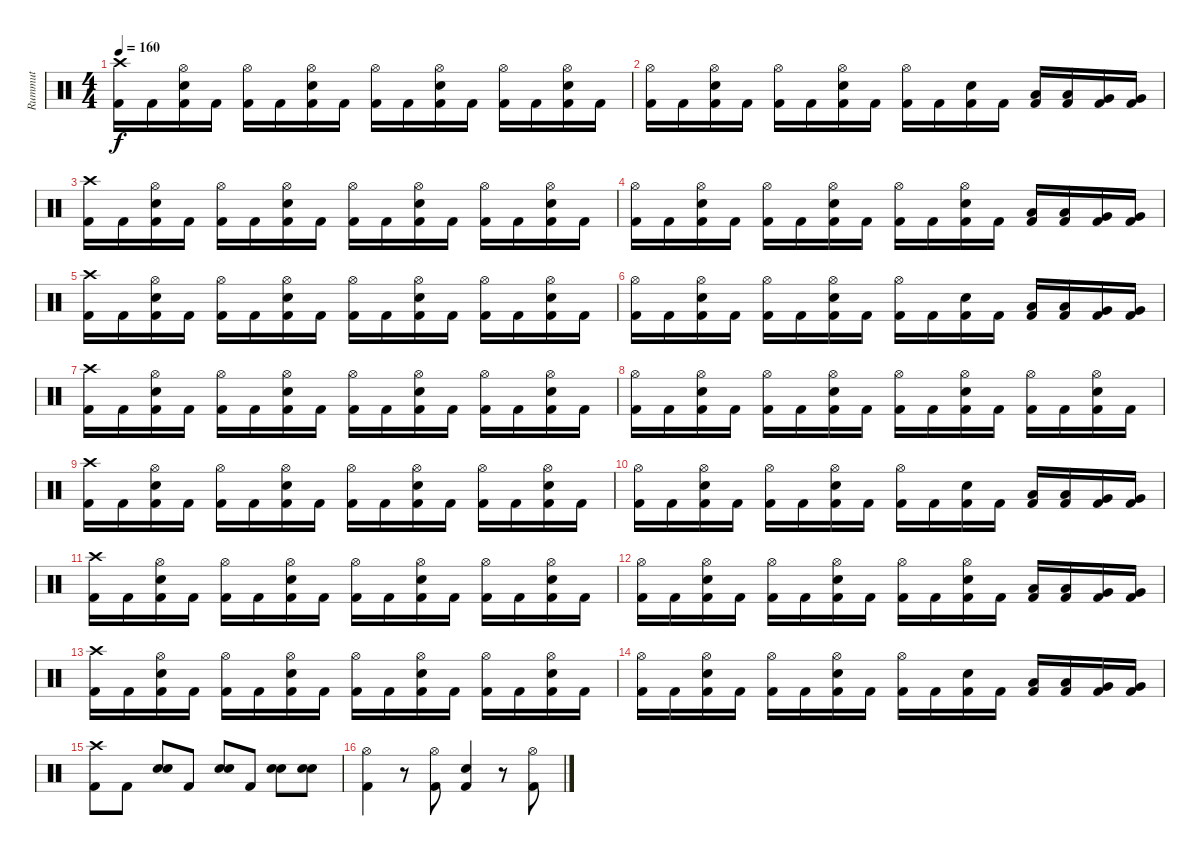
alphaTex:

\track ("Rummut" "Rummut") {instrument percussion}
\staff {score}
\articulation defaults
\ts (4 4)
\tempo 160
\clef neutral
\ks c
("Crash high (hit)" "Kick (hit) 2").16{dy f} "Kick (hit) 2".16 ("Hi-Hat (open)" "Snare (hit) 2" "Kick (hit) 2").16 "Kick (hit) 2".16 ("Hi-Hat (open)" "Kick (hit) 2").16 "Kick (hit) 2".16 ("Hi-Hat (open)" "Snare (hit) 2" "Kick (hit) 2").16 "Kick (hit) 2".16 ("Hi-Hat (open)" "Kick (hit) 2").16 "Kick (hit) 2".16 ("Hi-Hat (open)" "Snare (hit) 2" "Kick (hit) 2").16 "Kick (hit) 2".16 ("Hi-Hat (open)" "Kick (hit) 2").16 "Kick (hit) 2".16 ("Hi-Hat (open)" "Snare (hit) 2" "Kick (hit) 2").16 "Kick (hit) 2".16 |
("Hi-Hat (open)" "Kick (hit) 2").16 "Kick (hit) 2".16 ("Hi-Hat (open)" "Snare (hit) 2" "Kick (hit) 2").16 "Kick (hit) 2".16 ("Hi-Hat (open)" "Kick (hit) 2").16 "Kick (hit) 2".16 ("Hi-Hat (open)" "Snare (hit) 2" "Kick (hit) 2").16 "Kick (hit) 2".16 ("Hi-Hat (open)" "Kick (hit) 2").16 "Kick (hit) 2".16 ("Snare (hit) 2" "Kick (hit) 2").16 "Kick (hit) 2".16 ("Low Tom (hit)" "Kick (hit) 2").16 ("Low Tom (hit)" "Kick (hit) 2").16 ("Very Low Tom (hit)" "Kick (hit) 2").16 ("Very Low Tom (hit)" "Kick (hit) 2").16 |
("Crash high (hit)" "Kick (hit) 2").16 "Kick (hit) 2".16 ("Hi-Hat (open)" "Snare (hit) 2" "Kick (hit) 2").16 "Kick (hit) 2".16 ("Hi-Hat (open)" "Kick (hit) 2").16 "Kick (hit) 2".16 ("Hi-Hat (open)" "Snare (hit) 2" "Kick (hit) 2").16 "Kick (hit) 2".16 ("Hi-Hat (open)" "Kick (hit) 2").16 "Kick (hit) 2".16 ("Hi-Hat (open)" "Snare (hit) 2" "Kick (hit) 2").16 "Kick (hit) 2".16 ("Hi-Hat (open)" "Kick (hit) 2").16 "Kick (hit) 2".16 ("Hi-Hat (open)" "Snare (hit) 2" "Kick (hit) 2").16 "Kick (hit) 2".16 |
("Hi-Hat (open)" "Kick (hit) 2").16 "Kick (hit) 2".16 ("Hi-Hat (open)" "Snare (hit) 2" "Kick (hit) 2").16 "Kick (hit) 2".16 ("Hi-Hat (open)" "Kick (hit) 2").16 "Kick (hit) 2".16 ("Hi-Hat (open)" "Snare (hit) 2" "Kick (hit) 2").16 "Kick (hit) 2".16 ("Hi-Hat (open)" "Kick (hit) 2").16 "Kick (hit) 2".16 ("Hi-Hat (open)" "Snare (hit) 2" "Kick (hit) 2").16 "Kick (hit) 2".16 ("Low Tom (hit)" "Kick (hit) 2").16 ("Low Tom (hit)" "Kick (hit) 2").16 ("Very Low Tom (hit)" "Kick (hit) 2").16 ("Very Low Tom (hit)" "Kick (hit) 2").16 |
("Crash high (hit)" "Kick (hit) 2").16 "Kick (hit) 2".16 ("Hi-Hat (open)" "Snare (hit) 2" "Kick (hit) 2").16 "Kick (hit) 2".16 ("Hi-Hat (open)" "Kick (hit) 2").16 "Kick (hit) 2".16 ("Hi-Hat (open)" "Snare (hit) 2" "Kick (hit) 2").16 "Kick (hit) 2".16 ("Hi-Hat (open)" "Kick (hit) 2").16 "Kick (hit) 2".16 ("Hi-Hat (open)" "Snare (hit) 2" "Kick (hit) 2").16 "Kick (hit) 2".16 ("Hi-Hat (open)" "Kick (hit) 2").16 "Kick (hit) 2".16 ("Hi-Hat (open)" "Snare (hit) 2" "Kick (hit) 2").16 "Kick (hit) 2".16 |
("Hi-Hat (open)" "Kick (hit) 2").16 "Kick (hit) 2".16 ("Hi-Hat (open)" "Snare (hit) 2" "Kick (hit) 2").16 "Kick (hit) 2".16 ("Hi-Hat (open)" "Kick (hit) 2").16 "Kick (hit) 2".16 ("Hi-Hat (open)" "Snare (hit) 2" "Kick (hit) 2").16 "Kick (hit) 2".16 ("Hi-Hat (open)" "Kick (hit) 2").16 "Kick (hit) 2".16 ("Snare (hit) 2" "Kick (hit) 2").16 "Kick (hit) 2".16 ("Low Tom (hit)" "Kick (hit) 2").16 ("Low Tom (hit)" "Kick (hit) 2").16 ("Very Low Tom (hit)" "Kick (hit) 2").16 ("Very Low Tom (hit)" "Kick (hit) 2").16 |
("Crash high (hit)" "Kick (hit) 2").16 "Kick (hit) 2".16 ("Hi-Hat (open)" "Snare (hit) 2" "Kick (hit) 2").16 "Kick (hit) 2".16 ("Hi-Hat (open)" "Kick (hit) 2").16 "Kick (hit) 2".16 ("Hi-Hat (open)" "Snare (hit) 2" "Kick (hit) 2").16 "Kick (hit) 2".16 ("Hi-Hat (open)" "Kick (hit) 2").16 "Kick (hit) 2".16 ("Hi-Hat (open)" "Snare (hit) 2" "Kick (hit) 2").16 "Kick (hit) 2".16 ("Hi-Hat (open)" "Kick (hit) 2").16 "Kick (hit) 2".16 ("Hi-Hat (open)" "Snare (hit) 2" "Kick (hit) 2").16 "Kick (hit) 2".16 |
("Hi-Hat (open)" "Kick (hit) 2").16 "Kick (hit) 2".16 ("Hi-Hat (open)" "Snare (hit) 2" "Kick (hit) 2").16 "Kick (hit) 2".16 ("Hi-Hat (open)" "Kick (hit) 2").16 "Kick (hit) 2".16 ("Hi-Hat (open)" "Snare (hit) 2" "Kick (hit) 2").16 "Kick (hit) 2".16 ("Hi-Hat (open)" "Kick (hit) 2").16 "Kick (hit) 2".16 ("Hi-Hat (open)" "Snare (hit) 2" "Kick (hit) 2").16 "Kick (hit) 2".16 ("Hi-Hat (open)" "Kick (hit) 2").16 "Kick (hit) 2".16 ("Hi-Hat (open)" "Snare (hit) 2" "Kick (hit) 2").16 "Kick (hit) 2".16 |
("Crash high (hit)" "Kick (hit) 2").16 "Kick (hit) 2".16 ("Hi-Hat (open)" "Snare (hit) 2" "Kick (hit) 2").16 "Kick (hit) 2".16 ("Hi-Hat (open)" "Kick (hit) 2").16 "Kick (hit) 2".16 ("Hi-Hat (open)" "Snare (hit) 2" "Kick (hit) 2").16 "Kick (hit) 2".16 ("Hi-Hat (open)" "Kick (hit) 2").16 "Kick (hit) 2".16 ("Hi-Hat (open)" "Snare (hit) 2" "Kick (hit) 2").16 "Kick (hit) 2".16 ("Hi-Hat (open)" "Kick (hit) 2").16 "Kick (hit) 2".16 ("Hi-Hat (open)" "Snare (hit) 2" "Kick (hit) 2").16 "Kick (hit) 2".16 |
("Hi-Hat (open)" "Kick (hit) 2").16 "Kick (hit) 2".16 ("Hi-Hat (open)" "Snare (hit) 2" "Kick (hit) 2").16 "Kick (hit) 2".16 ("Hi-Hat (open)" "Kick (hit) 2").16 "Kick (hit) 2".16 ("Hi-Hat (open)" "Snare (hit) 2" "Kick (hit) 2").16 "Kick (hit) 2".16 ("Hi-Hat (open)" "Kick (hit) 2").16 "Kick (hit) 2".16 ("Snare (hit) 2" "Kick (hit) 2").16 "Kick (hit) 2".16 ("Low Tom (hit)" "Kick (hit) 2").16 ("Low Tom (hit)" "Kick (hit) 2").16 ("Very Low Tom (hit)" "Kick (hit) 2").16 ("Very Low Tom (hit)" "Kick (hit) 2").16 |
("Crash high (hit)" "Kick (hit) 2").16 "Kick (hit) 2".16 ("Hi-Hat (open)" "Snare (hit) 2" "Kick (hit) 2").16 "Kick (hit) 2".16 ("Hi-Hat (open)" "Kick (hit) 2").16 "Kick (hit) 2".16 ("Hi-Hat (open)" "Snare (hit) 2" "Kick (hit) 2").16 "Kick (hit) 2".16 ("Hi-Hat (open)" "Kick (hit) 2").16 "Kick (hit) 2".16 ("Hi-Hat (open)" "Snare (hit) 2" "Kick (hit) 2").16 "Kick (hit) 2".16 ("Hi-Hat (open)" "Kick (hit) 2").16 "Kick (hit) 2".16 ("Hi-Hat (open)" "Snare (hit) 2" "Kick (hit) 2").16 "Kick (hit) 2".16 |
("Hi-Hat (open)" "Kick (hit) 2").16 "Kick (hit) 2".16 ("Hi-Hat (open)" "Snare (hit) 2" "Kick (hit) 2").16 "Kick (hit) 2".16 ("Hi-Hat (open)" "Kick (hit) 2").16 "Kick (hit) 2".16 ("Hi-Hat (open)" "Snare (hit) 2" "Kick (hit) 2").16 "Kick (hit) 2".16 ("Hi-Hat (open)" "Kick (hit) 2").16 "Kick (hit) 2".16 ("Hi-Hat (open)" "Snare (hit) 2" "Kick (hit) 2").16 "Kick (hit) 2".16 ("Low Tom (hit)" "Kick (hit) 2").16 ("Low Tom (hit)" "Kick (hit) 2").16 ("Very Low Tom (hit)" "Kick (hit) 2").16 ("Very Low Tom (hit)" "Kick (hit) 2").16 |
("Crash high (hit)" "Kick (hit) 2").16 "Kick (hit) 2".16 ("Hi-Hat (open)" "Snare (hit) 2" "Kick (hit) 2").16 "Kick (hit) 2".16 ("Hi-Hat (open)" "Kick (hit) 2").16 "Kick (hit) 2".16 ("Hi-Hat (open)" "Snare (hit) 2" "Kick (hit) 2").16 "Kick (hit) 2".16 ("Hi-Hat (open)" "Kick (hit) 2").16 "Kick (hit) 2".16 ("Hi-Hat (open)" "Snare (hit) 2" "Kick (hit) 2").16 "Kick (hit) 2".16 ("Hi-Hat (open)" "Kick (hit) 2").16 "Kick (hit) 2".16 ("Hi-Hat (open)" "Snare (hit) 2" "Kick (hit) 2").16 "Kick (hit) 2".16 |
("Hi-Hat (open)" "Kick (hit) 2").16 "Kick (hit) 2".16 ("Hi-Hat (open)" "Snare (hit) 2" "Kick (hit) 2").16 "Kick (hit) 2".16 ("Hi-Hat (open)" "Kick (hit) 2").16 "Kick (hit) 2".16 ("Hi-Hat (open)" "Snare (hit) 2" "Kick (hit) 2").16 "Kick (hit) 2".16 ("Hi-Hat (open)" "Kick (hit) 2").16 "Kick (hit) 2".16 ("Snare (hit) 2" "Kick (hit) 2").16 "Kick (hit) 2".16 ("Low Tom (hit)" "Kick (hit) 2").16 ("Low Tom (hit)" "Kick (hit) 2").16 ("Very Low Tom (hit)" "Kick (hit) 2").16 ("Very Low Tom (hit)" "Kick (hit) 2").16 |
("Kick (hit) 2" "Crash high (hit)").8 "Kick (hit) 2".8 ("Snare (hit) 2" "Electric Snare (hit)").8 "Kick (hit) 2".8 ("Snare (hit) 2" "Electric Snare (hit)").8 "Kick (hit) 2".8 ("Snare (hit) 2" "Electric Snare (hit)").8 ("Snare (hit) 2" "Electric Snare (hit)").8 |
("Kick (hit) 2" "Hi-Hat (open)").4 r.8 ("Kick (hit) 2" "Hi-Hat (open)").8 ("Kick (hit) 2" "Snare (hit) 2").4 r.8 ("Kick (hit) 2" "Hi-Hat (open)").8
